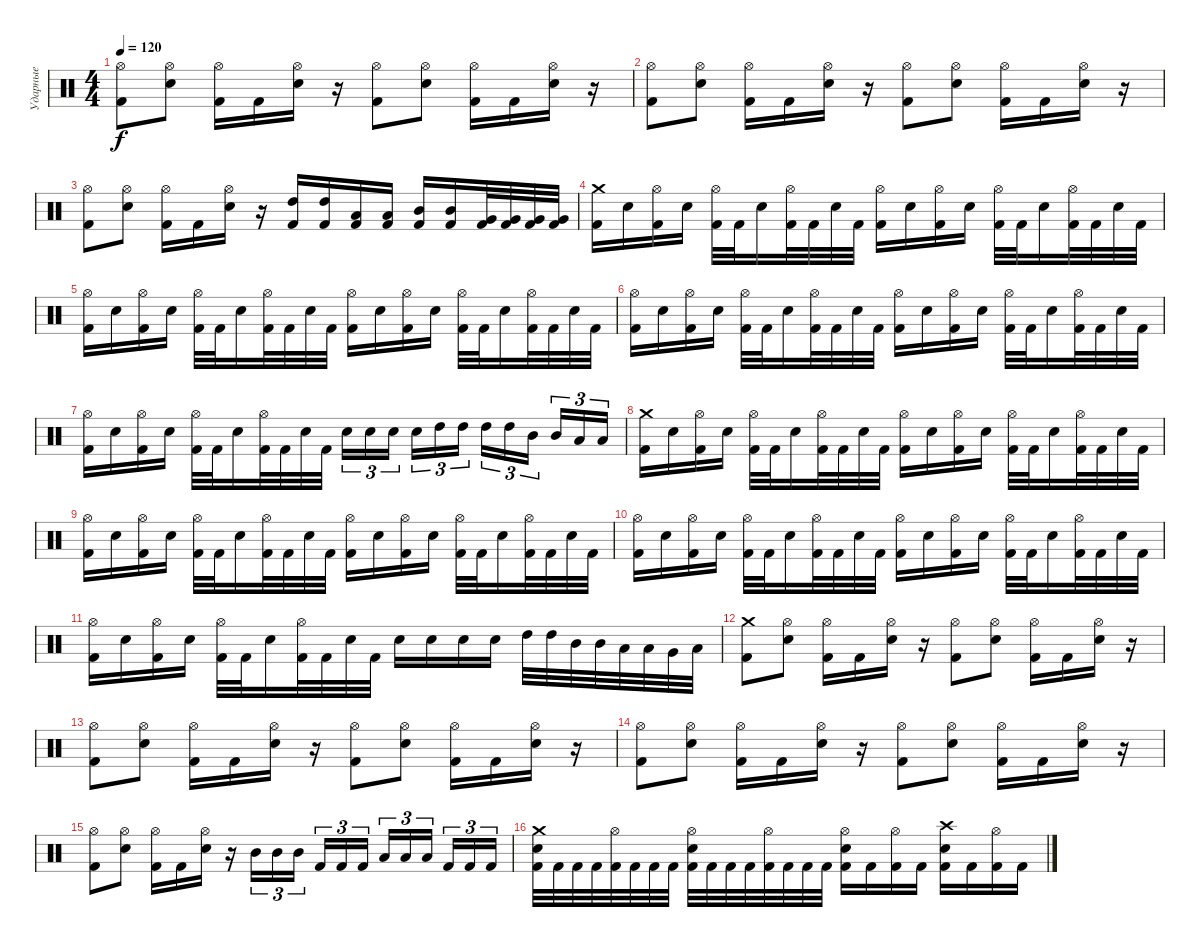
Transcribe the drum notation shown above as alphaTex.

\track ("Ударные" "Ударные") {instrument percussion}
\staff {score}
\articulation defaults
\ts (4 4)
\tempo 120
\clef neutral
\ks c
("Hi-Hat (open)" "Kick (hit) 2").8{dy f} ("Hi-Hat (open)" "Electric Snare (hit)").8 ("Hi-Hat (open)" "Kick (hit) 2").16 "Kick (hit) 2".16 ("Hi-Hat (open)" "Electric Snare (hit)").16 r.16 ("Hi-Hat (open)" "Kick (hit) 2").8 ("Hi-Hat (open)" "Electric Snare (hit)").8 ("Hi-Hat (open)" "Kick (hit) 2").16 "Kick (hit) 2".16 ("Hi-Hat (open)" "Electric Snare (hit)").16 r.16 |
("Hi-Hat (open)" "Kick (hit) 2").8 ("Hi-Hat (open)" "Electric Snare (hit)").8 ("Hi-Hat (open)" "Kick (hit) 2").16 "Kick (hit) 2".16 ("Hi-Hat (open)" "Electric Snare (hit)").16 r.16 ("Hi-Hat (open)" "Kick (hit) 2").8 ("Hi-Hat (open)" "Electric Snare (hit)").8 ("Hi-Hat (open)" "Kick (hit) 2").16 "Kick (hit) 2".16 ("Hi-Hat (open)" "Electric Snare (hit)").16 r.16 |
("Hi-Hat (open)" "Kick (hit) 2").8 ("Hi-Hat (open)" "Electric Snare (hit)").8 ("Hi-Hat (open)" "Kick (hit) 2").16 "Kick (hit) 2".16 ("Hi-Hat (open)" "Electric Snare (hit)").16 r.16 ("High Tom (hit)" "Kick (hit) 2").16 ("High Tom (hit)" "Kick (hit) 2").16 ("Low Tom (hit)" "Kick (hit) 2").16 ("Low Tom (hit)" "Kick (hit) 2").16 ("Mid Tom (hit)" "Kick (hit) 2").16 ("Mid Tom (hit)" "Kick (hit) 2").16 ("Very Low Tom (hit)" "Kick (hit) 2").32 ("Very Low Tom (hit)" "Kick (hit) 2").32 ("Very Low Tom (hit)" "Kick (hit) 2").32 ("Very Low Tom (hit)" "Kick (hit) 2").32 |
("Crash medium (hit)" "Kick (hit) 2").16 "Electric Snare (hit)".16 ("Hi-Hat (open)" "Kick (hit) 2").16 "Electric Snare (hit)".16 ("Hi-Hat (open)" "Kick (hit) 2").32 "Kick (hit) 2".32 "Electric Snare (hit)".16 ("Hi-Hat (open)" "Kick (hit) 2").32 "Kick (hit) 2".32 "Electric Snare (hit)".32 "Kick (hit) 2".32 ("Hi-Hat (open)" "Kick (hit) 2").16 "Electric Snare (hit)".16 ("Hi-Hat (open)" "Kick (hit) 2").16 "Electric Snare (hit)".16 ("Hi-Hat (open)" "Kick (hit) 2").32 "Kick (hit) 2".32 "Electric Snare (hit)".16 ("Hi-Hat (open)" "Kick (hit) 2").32 "Kick (hit) 2".32 "Electric Snare (hit)".32 "Kick (hit) 2".32 |
("Hi-Hat (open)" "Kick (hit) 2").16 "Electric Snare (hit)".16 ("Hi-Hat (open)" "Kick (hit) 2").16 "Electric Snare (hit)".16 ("Hi-Hat (open)" "Kick (hit) 2").32 "Kick (hit) 2".32 "Electric Snare (hit)".16 ("Hi-Hat (open)" "Kick (hit) 2").32 "Kick (hit) 2".32 "Electric Snare (hit)".32 "Kick (hit) 2".32 ("Hi-Hat (open)" "Kick (hit) 2").16 "Electric Snare (hit)".16 ("Hi-Hat (open)" "Kick (hit) 2").16 "Electric Snare (hit)".16 ("Hi-Hat (open)" "Kick (hit) 2").32 "Kick (hit) 2".32 "Electric Snare (hit)".16 ("Hi-Hat (open)" "Kick (hit) 2").32 "Kick (hit) 2".32 "Electric Snare (hit)".32 "Kick (hit) 2".32 |
("Hi-Hat (open)" "Kick (hit) 2").16 "Electric Snare (hit)".16 ("Hi-Hat (open)" "Kick (hit) 2").16 "Electric Snare (hit)".16 ("Hi-Hat (open)" "Kick (hit) 2").32 "Kick (hit) 2".32 "Electric Snare (hit)".16 ("Hi-Hat (open)" "Kick (hit) 2").32 "Kick (hit) 2".32 "Electric Snare (hit)".32 "Kick (hit) 2".32 ("Hi-Hat (open)" "Kick (hit) 2").16 "Electric Snare (hit)".16 ("Hi-Hat (open)" "Kick (hit) 2").16 "Electric Snare (hit)".16 ("Hi-Hat (open)" "Kick (hit) 2").32 "Kick (hit) 2".32 "Electric Snare (hit)".16 ("Hi-Hat (open)" "Kick (hit) 2").32 "Kick (hit) 2".32 "Electric Snare (hit)".32 "Kick (hit) 2".32 |
("Hi-Hat (open)" "Kick (hit) 2").16 "Electric Snare (hit)".16 ("Hi-Hat (open)" "Kick (hit) 2").16 "Electric Snare (hit)".16 ("Hi-Hat (open)" "Kick (hit) 2").32 "Kick (hit) 2".32 "Electric Snare (hit)".16 ("Hi-Hat (open)" "Kick (hit) 2").32 "Kick (hit) 2".32 "Electric Snare (hit)".32 "Kick (hit) 2".32 "Electric Snare (hit)".16{tu (3 2)} "Electric Snare (hit)".16{tu (3 2)} "Electric Snare (hit)".16{tu (3 2) beam splitsecondary} "Electric Snare (hit)".16{tu (3 2)} "High Tom (hit)".16{tu (3 2)} "High Tom (hit)".16{tu (3 2)} "High Tom (hit)".16{tu (3 2)} "High Tom (hit)".16{tu (3 2)} "Mid Tom (hit)".16{tu (3 2) beam splitsecondary} "Mid Tom (hit)".16{tu (3 2)} "Low Tom (hit)".16{tu (3 2)} "Low Tom (hit)".16{tu (3 2)} |
("Crash medium (hit)" "Kick (hit) 2").16 "Electric Snare (hit)".16 ("Hi-Hat (open)" "Kick (hit) 2").16 "Electric Snare (hit)".16 ("Hi-Hat (open)" "Kick (hit) 2").32 "Kick (hit) 2".32 "Electric Snare (hit)".16 ("Hi-Hat (open)" "Kick (hit) 2").32 "Kick (hit) 2".32 "Electric Snare (hit)".32 "Kick (hit) 2".32 ("Hi-Hat (open)" "Kick (hit) 2").16 "Electric Snare (hit)".16 ("Hi-Hat (open)" "Kick (hit) 2").16 "Electric Snare (hit)".16 ("Hi-Hat (open)" "Kick (hit) 2").32 "Kick (hit) 2".32 "Electric Snare (hit)".16 ("Hi-Hat (open)" "Kick (hit) 2").32 "Kick (hit) 2".32 "Electric Snare (hit)".32 "Kick (hit) 2".32 |
("Hi-Hat (open)" "Kick (hit) 2").16 "Electric Snare (hit)".16 ("Hi-Hat (open)" "Kick (hit) 2").16 "Electric Snare (hit)".16 ("Hi-Hat (open)" "Kick (hit) 2").32 "Kick (hit) 2".32 "Electric Snare (hit)".16 ("Hi-Hat (open)" "Kick (hit) 2").32 "Kick (hit) 2".32 "Electric Snare (hit)".32 "Kick (hit) 2".32 ("Hi-Hat (open)" "Kick (hit) 2").16 "Electric Snare (hit)".16 ("Hi-Hat (open)" "Kick (hit) 2").16 "Electric Snare (hit)".16 ("Hi-Hat (open)" "Kick (hit) 2").32 "Kick (hit) 2".32 "Electric Snare (hit)".16 ("Hi-Hat (open)" "Kick (hit) 2").32 "Kick (hit) 2".32 "Electric Snare (hit)".32 "Kick (hit) 2".32 |
("Hi-Hat (open)" "Kick (hit) 2").16 "Electric Snare (hit)".16 ("Hi-Hat (open)" "Kick (hit) 2").16 "Electric Snare (hit)".16 ("Hi-Hat (open)" "Kick (hit) 2").32 "Kick (hit) 2".32 "Electric Snare (hit)".16 ("Hi-Hat (open)" "Kick (hit) 2").32 "Kick (hit) 2".32 "Electric Snare (hit)".32 "Kick (hit) 2".32 ("Hi-Hat (open)" "Kick (hit) 2").16 "Electric Snare (hit)".16 ("Hi-Hat (open)" "Kick (hit) 2").16 "Electric Snare (hit)".16 ("Hi-Hat (open)" "Kick (hit) 2").32 "Kick (hit) 2".32 "Electric Snare (hit)".16 ("Hi-Hat (open)" "Kick (hit) 2").32 "Kick (hit) 2".32 "Electric Snare (hit)".32 "Kick (hit) 2".32 |
("Hi-Hat (open)" "Kick (hit) 2").16 "Electric Snare (hit)".16 ("Hi-Hat (open)" "Kick (hit) 2").16 "Electric Snare (hit)".16 ("Hi-Hat (open)" "Kick (hit) 2").32 "Kick (hit) 2".32 "Electric Snare (hit)".16 ("Hi-Hat (open)" "Kick (hit) 2").32 "Kick (hit) 2".32 "Electric Snare (hit)".32 "Kick (hit) 2".32 "Electric Snare (hit)".16 "Electric Snare (hit)".16 "Electric Snare (hit)".16 "Electric Snare (hit)".16 "High Tom (hit)".32 "High Tom (hit)".32 "Mid Tom (hit)".32 "Mid Tom (hit)".32 "Low Tom (hit)".32 "Low Tom (hit)".32 "Very Low Tom (hit)".32 "Low Floor Tom (hit)".32 |
("Crash medium (hit)" "Kick (hit) 2").8 ("Hi-Hat (open)" "Electric Snare (hit)").8 ("Hi-Hat (open)" "Kick (hit) 2").16 "Kick (hit) 2".16 ("Hi-Hat (open)" "Electric Snare (hit)").16 r.16 ("Hi-Hat (open)" "Kick (hit) 2").8 ("Hi-Hat (open)" "Electric Snare (hit)").8 ("Hi-Hat (open)" "Kick (hit) 2").16 "Kick (hit) 2".16 ("Hi-Hat (open)" "Electric Snare (hit)").16 r.16 |
("Hi-Hat (open)" "Kick (hit) 2").8 ("Hi-Hat (open)" "Electric Snare (hit)").8 ("Hi-Hat (open)" "Kick (hit) 2").16 "Kick (hit) 2".16 ("Hi-Hat (open)" "Electric Snare (hit)").16 r.16 ("Hi-Hat (open)" "Kick (hit) 2").8 ("Hi-Hat (open)" "Electric Snare (hit)").8 ("Hi-Hat (open)" "Kick (hit) 2").16 "Kick (hit) 2".16 ("Hi-Hat (open)" "Electric Snare (hit)").16 r.16 |
("Hi-Hat (open)" "Kick (hit) 2").8 ("Hi-Hat (open)" "Electric Snare (hit)").8 ("Hi-Hat (open)" "Kick (hit) 2").16 "Kick (hit) 2".16 ("Hi-Hat (open)" "Electric Snare (hit)").16 r.16 ("Hi-Hat (open)" "Kick (hit) 2").8 ("Hi-Hat (open)" "Electric Snare (hit)").8 ("Hi-Hat (open)" "Kick (hit) 2").16 "Kick (hit) 2".16 ("Hi-Hat (open)" "Electric Snare (hit)").16 r.16 |
("Hi-Hat (open)" "Kick (hit) 2").8 ("Hi-Hat (open)" "Electric Snare (hit)").8 ("Hi-Hat (open)" "Kick (hit) 2").16 "Kick (hit) 2".16 ("Hi-Hat (open)" "Electric Snare (hit)").16 r.16 "Mid Tom (hit)".16{tu (3 2)} "Mid Tom (hit)".16{tu (3 2)} "Mid Tom (hit)".16{tu (3 2) beam splitsecondary} "Kick (hit) 2".16{tu (3 2)} "Kick (hit) 2".16{tu (3 2)} "Kick (hit) 2".16{tu (3 2)} "Low Tom (hit)".16{tu (3 2)} "Low Tom (hit)".16{tu (3 2)} "Low Tom (hit)".16{tu (3 2) beam splitsecondary} "Kick (hit) 2".16{tu (3 2)} "Kick (hit) 2".16{tu (3 2)} "Kick (hit) 2".16{tu (3 2)} |
("Crash medium (hit)" "Electric Snare (hit)" "Kick (hit) 2").32 "Kick (hit) 2".32 "Kick (hit) 2".32 "Kick (hit) 2".32 ("Hi-Hat (open)" "Kick (hit) 2").32 "Kick (hit) 2".32 "Kick (hit) 2".32 "Kick (hit) 2".32 ("Hi-Hat (open)" "Electric Snare (hit)" "Kick (hit) 2").32 "Kick (hit) 2".32 "Kick (hit) 2".32 "Kick (hit) 2".32 ("Hi-Hat (open)" "Kick (hit) 2").32 "Kick (hit) 2".32 "Kick (hit) 2".32 "Kick (hit) 2".32 ("Hi-Hat (open)" "Electric Snare (hit)" "Kick (hit) 2").16 "Kick (hit) 2".16 ("Hi-Hat (open)" "Kick (hit) 2").16 "Kick (hit) 2".16 ("Crash high (hit)" "Electric Snare (hit)" "Kick (hit) 2").16 "Kick (hit) 2".16 ("Hi-Hat (open)" "Kick (hit) 2").16 "Kick (hit) 2".16
